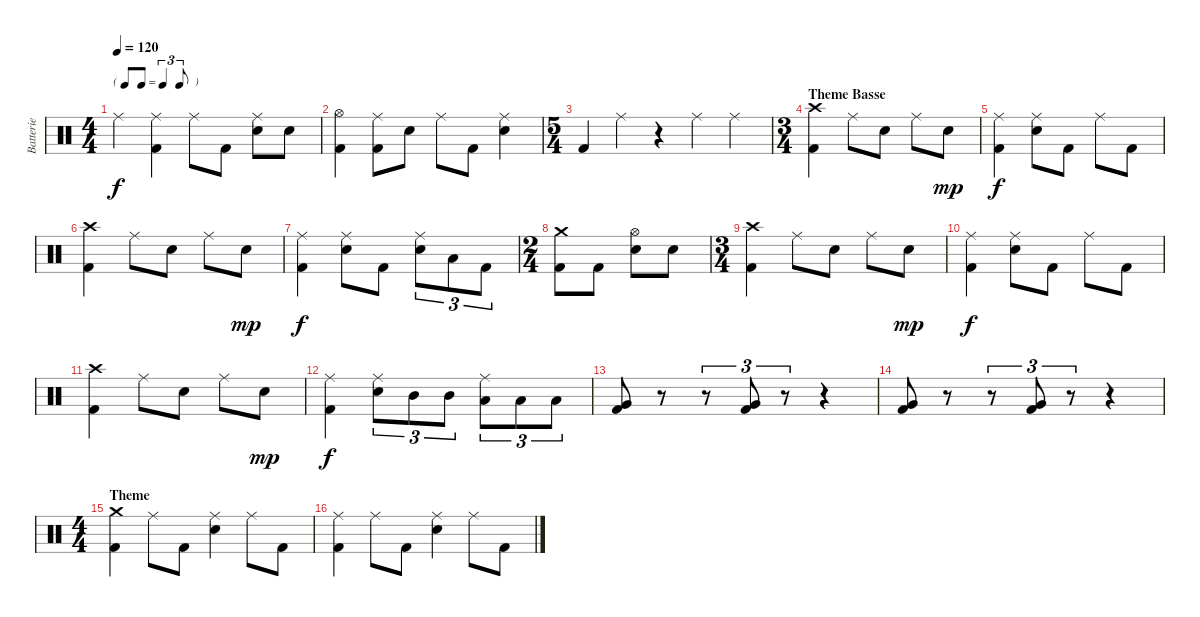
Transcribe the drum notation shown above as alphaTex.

\track ("Batterie" "Batterie") {instrument percussion}
\staff {score}
\articulation defaults
\ts (4 4)
\tf triplet8th
\tempo 120
\clef neutral
\ks c "Ride (middle)".4{dy f}
("Ride (middle)" "Kick (hit) 2").4 "Ride (middle)".8 "Kick (hit) 2".8 ("Ride (middle)" "Electric Snare (hit)").8 "Electric Snare (hit)".8 |
("Hi-Hat (open)" "Kick (hit) 2").4 ("Ride (middle)" "Kick (hit) 2").8 "Electric Snare (hit)".8 "Ride (middle)".8 "Kick (hit) 2".8 ("Ride (middle)" "Electric Snare (hit)").4 |
\ts (5 4)
"Kick (hit) 2".4 "Ride (middle)".4 r.4 "Ride (middle)".4 "Ride (middle)".4 |
\ts (3 4)
\section ("" "Theme Basse")
("Crash high (hit)" "Kick (hit) 2").4 "Ride (middle)".8 "Electric Snare (hit)".8 "Ride (middle)".8 "Electric Snare (hit)".8{dy mp} |
("Ride (middle)" "Kick (hit) 2").4{dy f} ("Ride (middle)" "Electric Snare (hit)").8 "Kick (hit) 2".8 "Ride (middle)".8 "Kick (hit) 2".8 |
("Crash high (hit)" "Kick (hit) 2").4 "Ride (middle)".8 "Electric Snare (hit)".8 "Ride (middle)".8 "Electric Snare (hit)".8{dy mp} |
("Ride (middle)" "Kick (hit) 2").4{dy f} ("Ride (middle)" "Electric Snare (hit)").8 "Kick (hit) 2".8 ("Ride (middle)" "Electric Snare (hit)").8{tu (3 2)} "Low Tom (hit)".8{tu (3 2)} "Kick (hit) 2".8{tu (3 2)} |
\ts (2 4)
("Crash medium (hit)" "Kick (hit) 2").8 "Kick (hit) 2".8 ("Hi-Hat (open)" "Electric Snare (hit)").8 "Electric Snare (hit)".8 |
\ts (3 4)
("Crash high (hit)" "Kick (hit) 2").4 "Ride (middle)".8 "Electric Snare (hit)".8 "Ride (middle)".8 "Electric Snare (hit)".8{dy mp} |
("Ride (middle)" "Kick (hit) 2").4{dy f} ("Ride (middle)" "Electric Snare (hit)").8 "Kick (hit) 2".8 "Ride (middle)".8 "Kick (hit) 2".8 |
("Crash high (hit)" "Kick (hit) 2").4 "Ride (middle)".8 "Electric Snare (hit)".8 "Ride (middle)".8 "Electric Snare (hit)".8{dy mp} |
("Ride (middle)" "Kick (hit) 2").4{dy f} ("Ride (middle)" "Electric Snare (hit)").8{tu (3 2)} "Mid Tom (hit)".8{tu (3 2)} "Mid Tom (hit)".8{tu (3 2)} ("Ride (middle)" "Low Tom (hit)").8{tu (3 2)} "Low Tom (hit)".8{tu (3 2)} "Low Floor Tom (hit)".8{tu (3 2)} |
("Very Low Tom (hit)" "Kick (hit) 2").8 r.8 r.8{tu (3 2)} ("Very Low Tom (hit)" "Kick (hit) 2").8{tu (3 2)} r.8{tu (3 2)} r.4 |
("Very Low Tom (hit)" "Kick (hit) 2").8 r.8 r.8{tu (3 2)} ("Very Low Tom (hit)" "Kick (hit) 2").8{tu (3 2)} r.8{tu (3 2)} r.4 |
\ts (4 4)
\section ("" "Theme")
("Crash medium (hit)" "Kick (hit) 2").4 "Ride (middle)".8 "Kick (hit) 2".8 ("Ride (middle)" "Electric Snare (hit)").4 "Ride (middle)".8 "Kick (hit) 2".8 |
("Ride (middle)" "Kick (hit) 2").4 "Ride (middle)".8 "Kick (hit) 2".8 ("Ride (middle)" "Electric Snare (hit)").4 "Ride (middle)".8 "Kick (hit) 2".8
